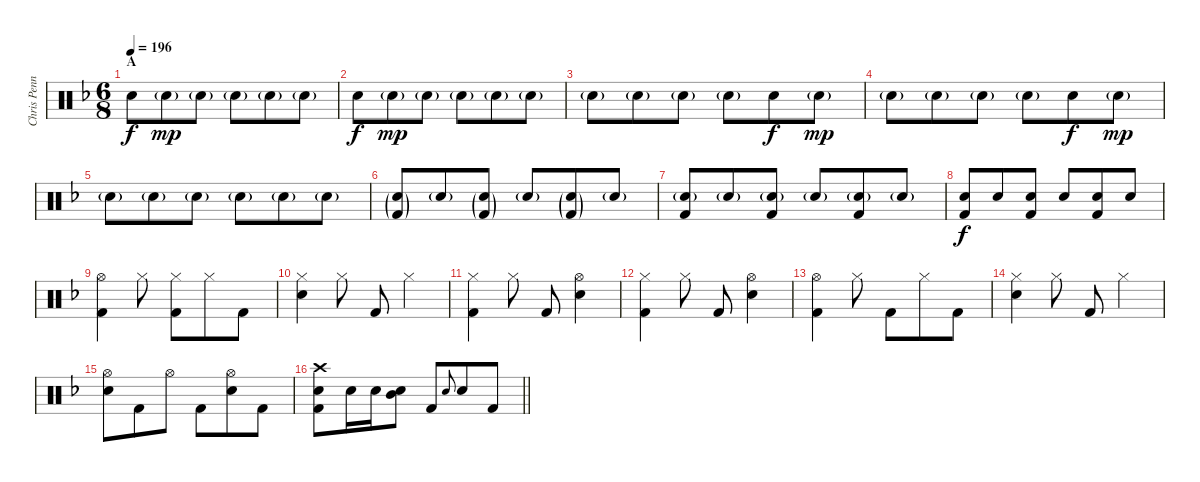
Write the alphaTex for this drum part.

\track ("Chris Pennie/Taylor Hawkins - Drum" "Chris Penn") {instrument percussion}
\staff {score}
\articulation defaults
\ts (6 8)
\section ("" "A")
\tempo 196
\clef neutral
\ks dminor "Electric Snare (hit)".8{dy f} "Electric Snare (hit)"{g}.8{dy mp} "Electric Snare (hit)"{g}.8 "Electric Snare (hit)"{g}.8 "Electric Snare (hit)"{g}.8 "Electric Snare (hit)"{g}.8
|
"Electric Snare (hit)".8{dy f} "Electric Snare (hit)"{g}.8{dy mp} "Electric Snare (hit)"{g}.8 "Electric Snare (hit)"{g}.8 "Electric Snare (hit)"{g}.8 "Electric Snare (hit)"{g}.8 |
"Electric Snare (hit)"{g}.8 "Electric Snare (hit)"{g}.8 "Electric Snare (hit)"{g}.8 "Electric Snare (hit)"{g}.8 "Electric Snare (hit)".8{dy f} "Electric Snare (hit)"{g}.8{dy mp} |
"Electric Snare (hit)"{g}.8 "Electric Snare (hit)"{g}.8 "Electric Snare (hit)"{g}.8 "Electric Snare (hit)"{g}.8 "Electric Snare (hit)".8{dy f} "Electric Snare (hit)"{g}.8{dy mp} |
"Electric Snare (hit)"{g}.8 "Electric Snare (hit)"{g}.8 "Electric Snare (hit)"{g}.8 "Electric Snare (hit)"{g}.8 "Electric Snare (hit)"{g}.8 "Electric Snare (hit)"{g}.8 |
("Electric Snare (hit)"{g} "Kick (hit) 2"{g}).8 "Electric Snare (hit)"{g}.8 ("Electric Snare (hit)"{g} "Kick (hit) 2"{g}).8 "Electric Snare (hit)"{g}.8 ("Electric Snare (hit)"{g} "Kick (hit) 2"{g}).8 "Electric Snare (hit)"{g}.8 |
("Electric Snare (hit)"{g} "Kick (hit) 2").8 "Electric Snare (hit)"{g}.8 ("Electric Snare (hit)"{g} "Kick (hit) 2").8 "Electric Snare (hit)"{g}.8 ("Electric Snare (hit)"{g} "Kick (hit) 2").8 "Electric Snare (hit)"{g}.8 |
("Electric Snare (hit)" "Kick (hit) 2").8{dy f} "Electric Snare (hit)".8 ("Electric Snare (hit)" "Kick (hit) 2").8 "Electric Snare (hit)".8 ("Electric Snare (hit)" "Kick (hit) 2").8 "Electric Snare (hit)".8 |
\ks f
("Hi-Hat (open)" "Kick (hit) 2").4 "Hi-Hat (closed)".8 ("Hi-Hat (closed)" "Kick (hit) 2").8 "Hi-Hat (closed)".8 "Kick (hit) 2".8 |
("Hi-Hat (closed)" "Electric Snare (hit)").4 "Hi-Hat (closed)".8 "Kick (hit) 2".8 "Hi-Hat (closed)".4 |
("Hi-Hat (closed)" "Kick (hit) 2").4 "Hi-Hat (closed)".8 "Kick (hit) 2".8 ("Hi-Hat (open)" "Electric Snare (hit)").4 |
("Hi-Hat (closed)" "Kick (hit) 2").4 "Hi-Hat (closed)".8 "Kick (hit) 2".8 ("Hi-Hat (open)" "Electric Snare (hit)").4 |
("Hi-Hat (open)" "Kick (hit) 2").4 "Hi-Hat (closed)".8 "Kick (hit) 2".8 "Hi-Hat (closed)".8 "Kick (hit) 2".8 |
("Hi-Hat (closed)" "Electric Snare (hit)").4 "Hi-Hat (closed)".8 "Kick (hit) 2".8 "Hi-Hat (closed)".4 |
("Hi-Hat (open)" "Electric Snare (hit)").8 "Kick (hit) 2".8 "Hi-Hat (open)".8 "Kick (hit) 2".8 ("Hi-Hat (open)" "Electric Snare (hit)").8 "Kick (hit) 2".8 |
\barLineRight lightlight
("Crash high (hit)" "Electric Snare (hit)" "Kick (hit) 2").8 "Electric Snare (hit)".16 "Electric Snare (hit)".16 ("Electric Snare (hit)" "Mid Tom (hit)").8 "Kick (hit) 2".8 "Electric Snare (hit)".8{gr onbeat} "Electric Snare (hit)".8 "Kick (hit) 2".8
